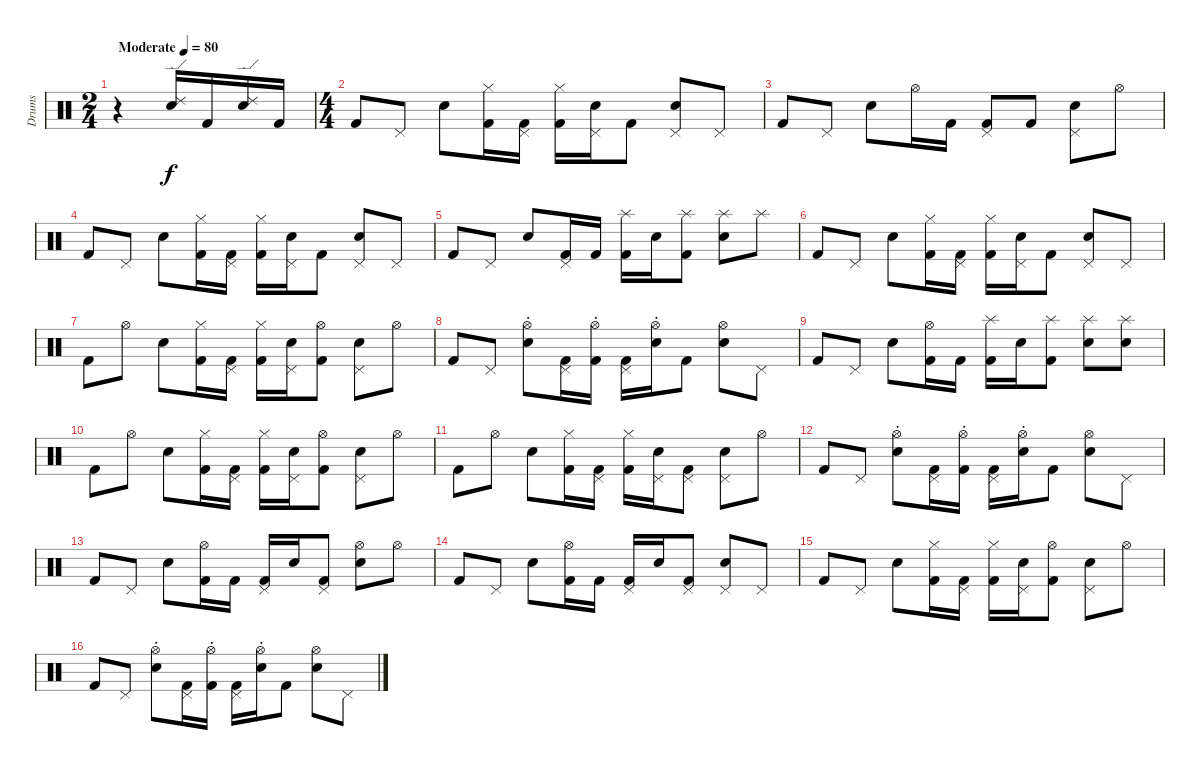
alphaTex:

\track ("Drums" "Drums") {instrument percussion}
\staff {score}
\articulation defaults
\ts (2 4)
\tempo (80 "Moderate")
\clef neutral
\ks c
r.4{dy f} ("Ride (edge) 2" "Snare (hit) 2").16 "Kick (hit) 2".16 ("Ride (edge) 2" "Snare (hit) 2").16 "Kick (hit) 2".16 |
\ts (4 4)
"Kick (hit) 2".8 "Pedal Hi-Hat (hit)".8 "Snare (hit) 2".8 ("Hi-Hat (closed)" "Kick (hit) 2").16 ("Pedal Hi-Hat (hit)" "Kick (hit) 2").16 ("Hi-Hat (closed)" "Kick (hit) 2").16 ("Pedal Hi-Hat (hit)" "Snare (hit) 2").16 "Kick (hit) 2".8 ("Pedal Hi-Hat (hit)" "Snare (hit) 2").8 "Pedal Hi-Hat (hit)".8 |
"Kick (hit) 2".8 "Pedal Hi-Hat (hit)".8 "Snare (hit) 2".8 "Hi-Hat (open)".16 "Kick (hit) 2".16 ("Pedal Hi-Hat (hit)" "Kick (hit) 2").8 "Kick (hit) 2".8 ("Pedal Hi-Hat (hit)" "Snare (hit) 2").8 "Hi-Hat (open)".8 |
"Kick (hit) 2".8 "Pedal Hi-Hat (hit)".8 "Snare (hit) 2".8 ("Hi-Hat (closed)" "Kick (hit) 2").16 ("Pedal Hi-Hat (hit)" "Kick (hit) 2").16 ("Hi-Hat (closed)" "Kick (hit) 2").16 ("Pedal Hi-Hat (hit)" "Snare (hit) 2").16 "Kick (hit) 2".8 ("Pedal Hi-Hat (hit)" "Snare (hit) 2").8 "Pedal Hi-Hat (hit)".8 |
"Kick (hit) 2".8 "Pedal Hi-Hat (hit)".8 "Snare (hit) 2".8 ("Pedal Hi-Hat (hit)" "Kick (hit) 2").16 "Kick (hit) 2".16 ("Splash (hit)" "Kick (hit) 2").16 "Snare (hit) 2".16 ("Splash (hit)" "Kick (hit) 2").8 ("Splash (hit)" "Snare (hit) 2").8 "Splash (hit)".8 |
"Kick (hit) 2".8 "Pedal Hi-Hat (hit)".8 "Snare (hit) 2".8 ("Hi-Hat (closed)" "Kick (hit) 2").16 ("Pedal Hi-Hat (hit)" "Kick (hit) 2").16 ("Hi-Hat (closed)" "Kick (hit) 2").16 ("Pedal Hi-Hat (hit)" "Snare (hit) 2").16 "Kick (hit) 2".8 ("Pedal Hi-Hat (hit)" "Snare (hit) 2").8 "Pedal Hi-Hat (hit)".8 |
"Kick (hit) 2".8 "Hi-Hat (open)".8 "Snare (hit) 2".8 ("Hi-Hat (closed)" "Kick (hit) 2").16 ("Pedal Hi-Hat (hit)" "Kick (hit) 2").16 ("Hi-Hat (closed)" "Kick (hit) 2").16 ("Pedal Hi-Hat (hit)" "Snare (hit) 2").16 ("Hi-Hat (open)" "Kick (hit) 2").8 ("Pedal Hi-Hat (hit)" "Snare (hit) 2").8 "Hi-Hat (open)".8 |
"Kick (hit) 2".8 "Pedal Hi-Hat (hit)".8 ("Hi-Hat (open)"{st} "Snare (hit) 2").8 ("Pedal Hi-Hat (hit)" "Kick (hit) 2").16 ("Hi-Hat (open)"{st} "Kick (hit) 2").16 ("Pedal Hi-Hat (hit)" "Kick (hit) 2").16 ("Hi-Hat (open)"{st} "Snare (hit) 2").16 "Kick (hit) 2".8 ("Hi-Hat (open)" "Snare (hit) 2").8 "Pedal Hi-Hat (hit)".8 |
"Kick (hit) 2".8 "Pedal Hi-Hat (hit)".8 "Snare (hit) 2".8 ("Hi-Hat (open)" "Kick (hit) 2").16 "Kick (hit) 2".16 ("Splash (hit)" "Kick (hit) 2").16 "Snare (hit) 2".16 ("Splash (hit)" "Kick (hit) 2").8 ("Splash (hit)" "Snare (hit) 2").8 ("Splash (hit)" "Snare (hit) 2").8 |
"Kick (hit) 2".8 "Hi-Hat (open)".8 "Snare (hit) 2".8 ("Hi-Hat (closed)" "Kick (hit) 2").16 ("Pedal Hi-Hat (hit)" "Kick (hit) 2").16 ("Hi-Hat (closed)" "Kick (hit) 2").16 ("Pedal Hi-Hat (hit)" "Snare (hit) 2").16 ("Hi-Hat (open)" "Kick (hit) 2").8 ("Pedal Hi-Hat (hit)" "Snare (hit) 2").8 "Hi-Hat (open)".8 |
"Kick (hit) 2".8 "Hi-Hat (open)".8 "Snare (hit) 2".8 ("Hi-Hat (closed)" "Kick (hit) 2").16 ("Pedal Hi-Hat (hit)" "Kick (hit) 2").16 ("Hi-Hat (closed)" "Kick (hit) 2").16 ("Pedal Hi-Hat (hit)" "Snare (hit) 2").16 ("Pedal Hi-Hat (hit)" "Kick (hit) 2").8 ("Pedal Hi-Hat (hit)" "Snare (hit) 2").8 "Hi-Hat (open)".8 |
"Kick (hit) 2".8 "Pedal Hi-Hat (hit)".8 ("Hi-Hat (open)"{st} "Snare (hit) 2").8 ("Pedal Hi-Hat (hit)" "Kick (hit) 2").16 ("Hi-Hat (open)"{st} "Kick (hit) 2").16 ("Pedal Hi-Hat (hit)" "Kick (hit) 2").16 ("Hi-Hat (open)"{st} "Snare (hit) 2").16 "Kick (hit) 2".8 ("Hi-Hat (open)" "Snare (hit) 2").8 "Pedal Hi-Hat (hit)".8 |
"Kick (hit) 2".8 "Pedal Hi-Hat (hit)".8 "Snare (hit) 2".8 ("Hi-Hat (open)" "Kick (hit) 2").16 "Kick (hit) 2".16 ("Pedal Hi-Hat (hit)" "Kick (hit) 2").16 "Snare (hit) 2".16 ("Pedal Hi-Hat (hit)" "Kick (hit) 2").8 ("Hi-Hat (open)" "Snare (hit) 2").8 "Hi-Hat (open)".8 |
"Kick (hit) 2".8 "Pedal Hi-Hat (hit)".8 "Snare (hit) 2".8 ("Hi-Hat (open)" "Kick (hit) 2").16 "Kick (hit) 2".16 ("Pedal Hi-Hat (hit)" "Kick (hit) 2").16 "Snare (hit) 2".16 ("Pedal Hi-Hat (hit)" "Kick (hit) 2").8 ("Pedal Hi-Hat (hit)" "Snare (hit) 2").8 "Pedal Hi-Hat (hit)".8 |
"Kick (hit) 2".8 "Pedal Hi-Hat (hit)".8 "Snare (hit) 2".8 ("Hi-Hat (closed)" "Kick (hit) 2").16 ("Pedal Hi-Hat (hit)" "Kick (hit) 2").16 ("Hi-Hat (closed)" "Kick (hit) 2").16 ("Pedal Hi-Hat (hit)" "Snare (hit) 2").16 ("Hi-Hat (open)" "Kick (hit) 2").8 ("Pedal Hi-Hat (hit)" "Snare (hit) 2").8 "Hi-Hat (open)".8 |
"Kick (hit) 2".8 "Pedal Hi-Hat (hit)".8 ("Hi-Hat (open)"{st} "Snare (hit) 2").8 ("Pedal Hi-Hat (hit)" "Kick (hit) 2").16 ("Hi-Hat (open)"{st} "Kick (hit) 2").16 ("Pedal Hi-Hat (hit)" "Kick (hit) 2").16 ("Hi-Hat (open)"{st} "Snare (hit) 2").16 "Kick (hit) 2".8 ("Hi-Hat (open)" "Snare (hit) 2").8 "Pedal Hi-Hat (hit)".8
